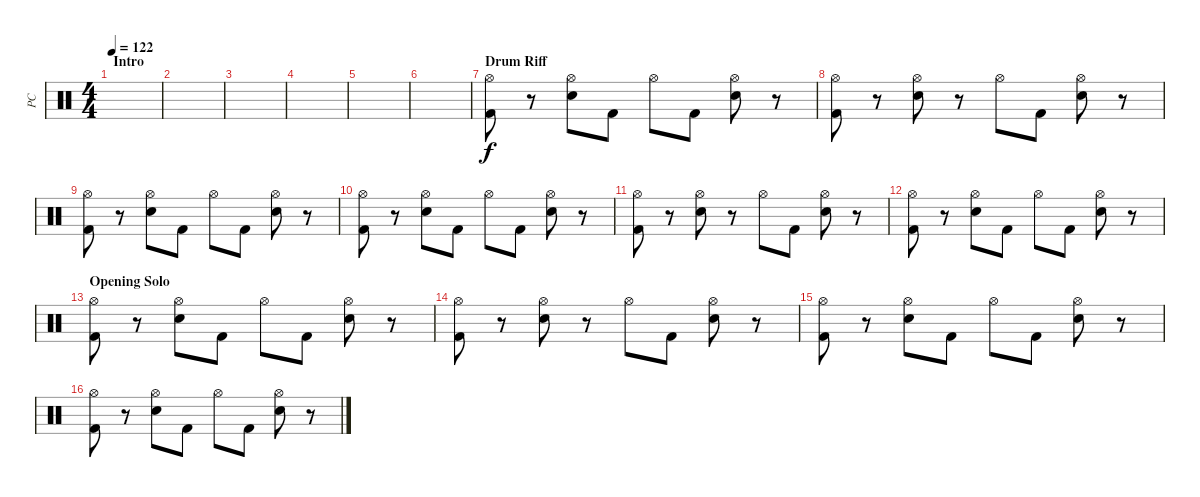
\track ("PC" "PC") {instrument percussion}
\staff {score}
\articulation defaults
\ts (4 4)
\section ("" "Intro")
\tempo 122
\clef neutral
\ks c
|
|
|
|
|
|
\section ("" "Drum Riff")
("Hi-Hat (open)" "Kick (hit) 2").8 r.8 ("Hi-Hat (open)" "Electric Snare (hit)").8 "Kick (hit) 2".8 "Hi-Hat (open)".8 "Kick (hit) 2".8 ("Hi-Hat (open)" "Electric Snare (hit)").8 r.8 |
("Hi-Hat (open)" "Kick (hit) 2").8 r.8 ("Hi-Hat (open)" "Electric Snare (hit)").8 r.8 "Hi-Hat (open)".8 "Kick (hit) 2".8 ("Hi-Hat (open)" "Electric Snare (hit)").8 r.8 |
("Hi-Hat (open)" "Kick (hit) 2").8 r.8 ("Hi-Hat (open)" "Electric Snare (hit)").8 "Kick (hit) 2".8 "Hi-Hat (open)".8 "Kick (hit) 2".8 ("Hi-Hat (open)" "Electric Snare (hit)").8 r.8 |
("Hi-Hat (open)" "Kick (hit) 2").8 r.8 ("Hi-Hat (open)" "Electric Snare (hit)").8 "Kick (hit) 2".8 "Hi-Hat (open)".8 "Kick (hit) 2".8 ("Hi-Hat (open)" "Electric Snare (hit)").8 r.8 |
("Hi-Hat (open)" "Kick (hit) 2").8 r.8 ("Hi-Hat (open)" "Electric Snare (hit)").8 r.8 "Hi-Hat (open)".8 "Kick (hit) 2".8 ("Hi-Hat (open)" "Electric Snare (hit)").8 r.8 |
("Hi-Hat (open)" "Kick (hit) 2").8 r.8 ("Hi-Hat (open)" "Electric Snare (hit)").8 "Kick (hit) 2".8 "Hi-Hat (open)".8 "Kick (hit) 2".8 ("Hi-Hat (open)" "Electric Snare (hit)").8 r.8 |
\section ("" "Opening Solo")
("Hi-Hat (open)" "Kick (hit) 2").8 r.8 ("Hi-Hat (open)" "Electric Snare (hit)").8 "Kick (hit) 2".8 "Hi-Hat (open)".8 "Kick (hit) 2".8 ("Hi-Hat (open)" "Electric Snare (hit)").8 r.8 |
("Hi-Hat (open)" "Kick (hit) 2").8 r.8 ("Hi-Hat (open)" "Electric Snare (hit)").8 r.8 "Hi-Hat (open)".8 "Kick (hit) 2".8 ("Hi-Hat (open)" "Electric Snare (hit)").8 r.8 |
("Hi-Hat (open)" "Kick (hit) 2").8 r.8 ("Hi-Hat (open)" "Electric Snare (hit)").8 "Kick (hit) 2".8 "Hi-Hat (open)".8 "Kick (hit) 2".8 ("Hi-Hat (open)" "Electric Snare (hit)").8 r.8 |
("Hi-Hat (open)" "Kick (hit) 2").8 r.8 ("Hi-Hat (open)" "Electric Snare (hit)").8 "Kick (hit) 2".8 "Hi-Hat (open)".8 "Kick (hit) 2".8 ("Hi-Hat (open)" "Electric Snare (hit)").8 r.8
